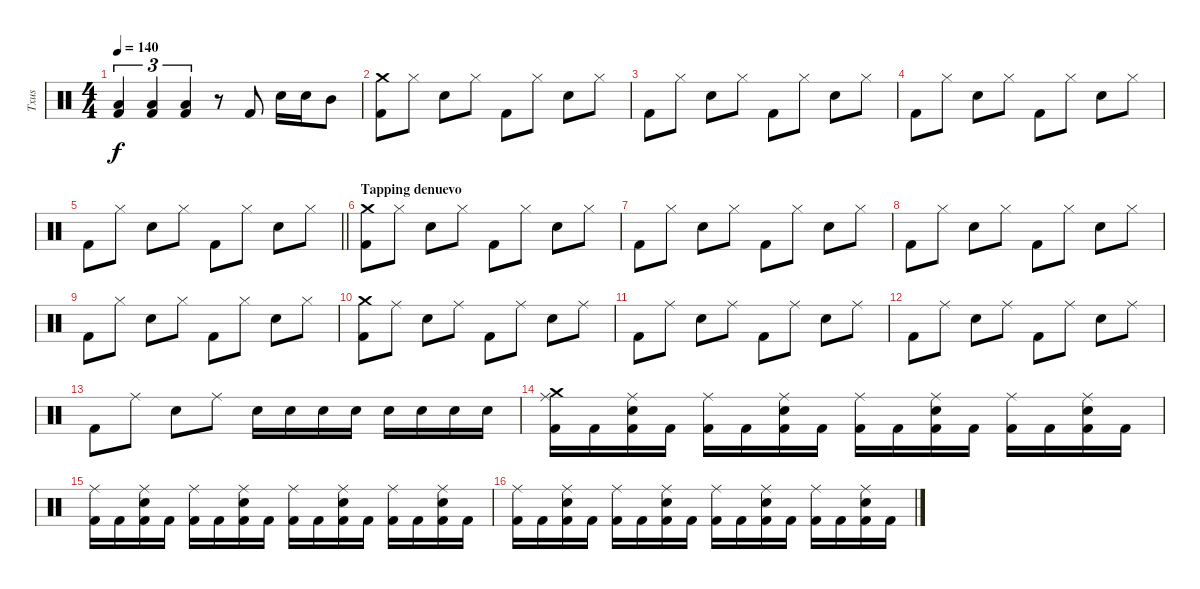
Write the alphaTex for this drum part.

\track ("Txus" "Txus") {instrument percussion}
\staff {score}
\articulation defaults
\ts (4 4)
\tempo 140
\clef neutral
\ks c
("Low Floor Tom (hit)" "Kick (hit) 2").4{tu (3 2) dy f} ("Low Floor Tom (hit)" "Kick (hit) 2").4{tu (3 2)} ("Low Floor Tom (hit)" "Kick (hit) 2").4{tu (3 2)} r.8 "Kick (hit) 2".8 "Electric Snare (hit)".16 "Electric Snare (hit)".16 "Mid Tom (hit)".8 |
("Crash medium (hit)" "Kick (hit) 2").8 "Hi-Hat (closed)".8 "Electric Snare (hit)".8 "Hi-Hat (closed)".8 "Kick (hit) 2".8 "Hi-Hat (closed)".8 "Electric Snare (hit)".8 "Hi-Hat (closed)".8 |
"Kick (hit) 2".8 "Hi-Hat (closed)".8 "Electric Snare (hit)".8 "Hi-Hat (closed)".8 "Kick (hit) 2".8 "Hi-Hat (closed)".8 "Electric Snare (hit)".8 "Hi-Hat (closed)".8 |
"Kick (hit) 2".8 "Hi-Hat (closed)".8 "Electric Snare (hit)".8 "Hi-Hat (closed)".8 "Kick (hit) 2".8 "Hi-Hat (closed)".8 "Electric Snare (hit)".8 "Hi-Hat (closed)".8 |
\barLineRight lightlight "Kick (hit) 2".8 "Hi-Hat (closed)".8 "Electric Snare (hit)".8 "Hi-Hat (closed)".8 "Kick (hit) 2".8 "Hi-Hat (closed)".8 "Electric Snare (hit)".8 "Hi-Hat (closed)".8
|
\section ("" "Tapping denuevo")
("Crash medium (hit)" "Kick (hit) 2").8 "Hi-Hat (closed)".8 "Electric Snare (hit)".8 "Hi-Hat (closed)".8 "Kick (hit) 2".8 "Hi-Hat (closed)".8 "Electric Snare (hit)".8 "Hi-Hat (closed)".8 |
"Kick (hit) 2".8 "Hi-Hat (closed)".8 "Electric Snare (hit)".8 "Hi-Hat (closed)".8 "Kick (hit) 2".8 "Hi-Hat (closed)".8 "Electric Snare (hit)".8 "Hi-Hat (closed)".8 |
"Kick (hit) 2".8 "Hi-Hat (closed)".8 "Electric Snare (hit)".8 "Hi-Hat (closed)".8 "Kick (hit) 2".8 "Hi-Hat (closed)".8 "Electric Snare (hit)".8 "Hi-Hat (closed)".8 |
"Kick (hit) 2".8 "Hi-Hat (closed)".8 "Electric Snare (hit)".8 "Hi-Hat (closed)".8 "Kick (hit) 2".8 "Hi-Hat (closed)".8 "Electric Snare (hit)".8 "Hi-Hat (closed)".8 |
("Crash medium (hit)" "Kick (hit) 2").8 "Ride (middle)".8 "Electric Snare (hit)".8 "Ride (middle)".8 "Kick (hit) 2".8 "Ride (middle)".8 "Electric Snare (hit)".8 "Ride (middle)".8 |
"Kick (hit) 2".8 "Ride (middle)".8 "Electric Snare (hit)".8 "Ride (middle)".8 "Kick (hit) 2".8 "Ride (middle)".8 "Electric Snare (hit)".8 "Ride (middle)".8 |
"Kick (hit) 2".8 "Ride (middle)".8 "Electric Snare (hit)".8 "Ride (middle)".8 "Kick (hit) 2".8 "Ride (middle)".8 "Electric Snare (hit)".8 "Ride (middle)".8 |
"Kick (hit) 2".8 "Ride (middle)".8 "Electric Snare (hit)".8 "Ride (middle)".8 "Electric Snare (hit)".16 "Electric Snare (hit)".16 "Electric Snare (hit)".16 "Electric Snare (hit)".16 "Electric Snare (hit)".16 "Electric Snare (hit)".16 "Electric Snare (hit)".16 "Electric Snare (hit)".16 |
("Crash medium (hit)" "Ride (middle)" "Kick (hit) 2").16 "Kick (hit) 2".16 ("Ride (middle)" "Electric Snare (hit)" "Kick (hit) 2").16 "Kick (hit) 2".16 ("Ride (middle)" "Kick (hit) 2").16 "Kick (hit) 2".16 ("Ride (middle)" "Electric Snare (hit)" "Kick (hit) 2").16 "Kick (hit) 2".16 ("Ride (middle)" "Kick (hit) 2").16 "Kick (hit) 2".16 ("Ride (middle)" "Electric Snare (hit)" "Kick (hit) 2").16 "Kick (hit) 2".16 ("Ride (middle)" "Kick (hit) 2").16 "Kick (hit) 2".16 ("Ride (middle)" "Electric Snare (hit)" "Kick (hit) 2").16 "Kick (hit) 2".16 |
("Ride (middle)" "Kick (hit) 2").16 "Kick (hit) 2".16 ("Ride (middle)" "Electric Snare (hit)" "Kick (hit) 2").16 "Kick (hit) 2".16 ("Ride (middle)" "Kick (hit) 2").16 "Kick (hit) 2".16 ("Ride (middle)" "Electric Snare (hit)" "Kick (hit) 2").16 "Kick (hit) 2".16 ("Ride (middle)" "Kick (hit) 2").16 "Kick (hit) 2".16 ("Ride (middle)" "Electric Snare (hit)" "Kick (hit) 2").16 "Kick (hit) 2".16 ("Ride (middle)" "Kick (hit) 2").16 "Kick (hit) 2".16 ("Ride (middle)" "Electric Snare (hit)" "Kick (hit) 2").16 "Kick (hit) 2".16 |
("Ride (middle)" "Kick (hit) 2").16 "Kick (hit) 2".16 ("Ride (middle)" "Electric Snare (hit)" "Kick (hit) 2").16 "Kick (hit) 2".16 ("Ride (middle)" "Kick (hit) 2").16 "Kick (hit) 2".16 ("Ride (middle)" "Electric Snare (hit)" "Kick (hit) 2").16 "Kick (hit) 2".16 ("Ride (middle)" "Kick (hit) 2").16 "Kick (hit) 2".16 ("Ride (middle)" "Electric Snare (hit)" "Kick (hit) 2").16 "Kick (hit) 2".16 ("Ride (middle)" "Kick (hit) 2").16 "Kick (hit) 2".16 ("Ride (middle)" "Electric Snare (hit)" "Kick (hit) 2").16 "Kick (hit) 2".16
